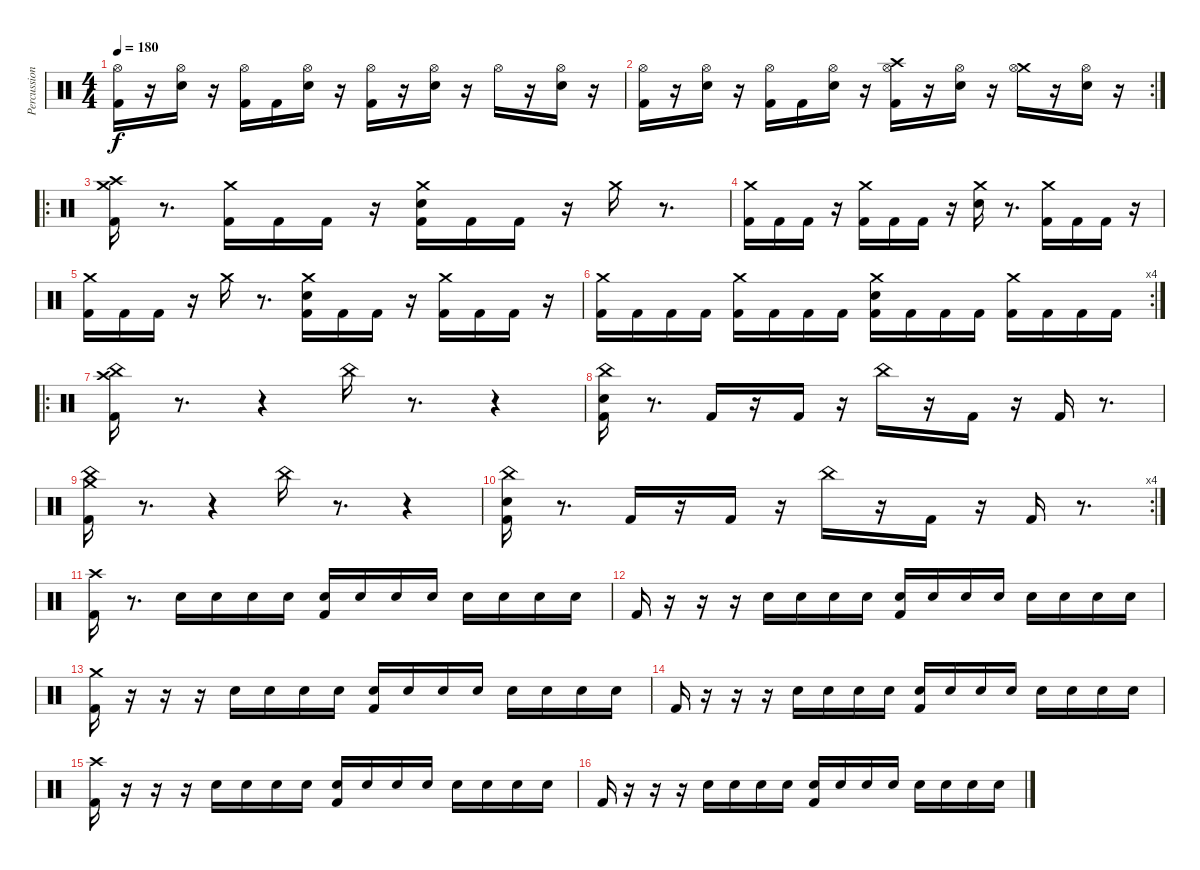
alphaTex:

\track ("Percussion" "Percussion") {instrument percussion}
\staff {score}
\articulation defaults
\ts (4 4)
\tempo 180
\clef neutral
\ks c
("Hi-Hat (open)" "Kick (hit) 2").16{dy f} r.16 ("Electric Snare (hit)" "Hi-Hat (open)").16 r.16 ("Hi-Hat (open)" "Kick (hit) 2").16 "Kick (hit) 2".16 ("Electric Snare (hit)" "Hi-Hat (open)").16 r.16 ("Hi-Hat (open)" "Kick (hit) 2").16 r.16 ("Electric Snare (hit)" "Hi-Hat (open)").16 r.16 "Hi-Hat (open)".16 r.16 ("Electric Snare (hit)" "Hi-Hat (open)").16 r.16 |
\rc 2
("Hi-Hat (open)" "Kick (hit) 2").16 r.16 ("Electric Snare (hit)" "Hi-Hat (open)").16 r.16 ("Hi-Hat (open)" "Kick (hit) 2").16 "Kick (hit) 2".16 ("Electric Snare (hit)" "Hi-Hat (open)").16 r.16 ("Crash high (hit)" "Hi-Hat (open)" "Kick (hit) 2").16 r.16 ("Electric Snare (hit)" "Hi-Hat (open)").16 r.16 ("Crash medium (hit)" "Hi-Hat (open)").16 r.16 ("Electric Snare (hit)" "Hi-Hat (open)").16 r.16 |
\ro
("Crash medium (hit)" "Crash high (hit)" "Kick (hit) 2").16 r.8{d} ("Crash medium (hit)" "Kick (hit) 2").16 "Kick (hit) 2".16 "Kick (hit) 2".16 r.16 ("Electric Snare (hit)" "Crash medium (hit)" "Kick (hit) 2").16 "Kick (hit) 2".16 "Kick (hit) 2".16 r.16 "Crash medium (hit)".16 r.8{d} |
("Crash medium (hit)" "Kick (hit) 2").16 "Kick (hit) 2".16 "Kick (hit) 2".16 r.16 ("Crash medium (hit)" "Kick (hit) 2").16 "Kick (hit) 2".16 "Kick (hit) 2".16 r.16 ("Electric Snare (hit)" "Crash medium (hit)").16 r.8{d} ("Crash medium (hit)" "Kick (hit) 2").16 "Kick (hit) 2".16 "Kick (hit) 2".16 r.16 |
("Crash medium (hit)" "Kick (hit) 2").16 "Kick (hit) 2".16 "Kick (hit) 2".16 r.16 "Crash medium (hit)".16 r.8{d} ("Electric Snare (hit)" "Crash medium (hit)" "Kick (hit) 2").16 "Kick (hit) 2".16 "Kick (hit) 2".16 r.16 ("Crash medium (hit)" "Kick (hit) 2").16 "Kick (hit) 2".16 "Kick (hit) 2".16 r.16 |
\rc 4
("Crash medium (hit)" "Kick (hit) 2").16 "Kick (hit) 2".16 "Kick (hit) 2".16 "Kick (hit) 2".16 ("Crash medium (hit)" "Kick (hit) 2").16 "Kick (hit) 2".16 "Kick (hit) 2".16 "Kick (hit) 2".16 ("Electric Snare (hit)" "Crash medium (hit)" "Kick (hit) 2").16 "Kick (hit) 2".16 "Kick (hit) 2".16 "Kick (hit) 2".16 ("Crash medium (hit)" "Kick (hit) 2").16 "Kick (hit) 2".16 "Kick (hit) 2".16 "Kick (hit) 2".16 |
\ro
("Crash high (hit)" "China (hit)" "Kick (hit) 2").16 r.8{d} r.4 "China (hit)".16 r.8{d} r.4 |
("Electric Snare (hit)" "China (hit)" "Kick (hit) 2").16 r.8{d} "Kick (hit) 2".16 r.16 "Kick (hit) 2".16 r.16 "China (hit)".16 r.16 "Kick (hit) 2".16 r.16 "Kick (hit) 2".16 r.8{d} |
("Crash medium (hit)" "China (hit)" "Kick (hit) 2").16 r.8{d} r.4 "China (hit)".16 r.8{d} r.4 |
\rc 4
("Electric Snare (hit)" "China (hit)" "Kick (hit) 2").16 r.8{d} "Kick (hit) 2".16 r.16 "Kick (hit) 2".16 r.16 "China (hit)".16 r.16 "Kick (hit) 2".16 r.16 "Kick (hit) 2".16 r.8{d} |
("Crash high (hit)" "Kick (hit) 2").16 r.8{d} "Electric Snare (hit)".16 "Electric Snare (hit)".16 "Electric Snare (hit)".16 "Electric Snare (hit)".16 ("Electric Snare (hit)" "Kick (hit) 2").16 "Electric Snare (hit)".16 "Electric Snare (hit)".16 "Electric Snare (hit)".16 "Electric Snare (hit)".16 "Electric Snare (hit)".16 "Electric Snare (hit)".16 "Electric Snare (hit)".16 |
"Kick (hit) 2".16 r.16 r.16 r.16 "Electric Snare (hit)".16 "Electric Snare (hit)".16 "Electric Snare (hit)".16 "Electric Snare (hit)".16 ("Electric Snare (hit)" "Kick (hit) 2").16 "Electric Snare (hit)".16 "Electric Snare (hit)".16 "Electric Snare (hit)".16 "Electric Snare (hit)".16 "Electric Snare (hit)".16 "Electric Snare (hit)".16 "Electric Snare (hit)".16 |
("Crash medium (hit)" "Kick (hit) 2").16 r.16 r.16 r.16 "Electric Snare (hit)".16 "Electric Snare (hit)".16 "Electric Snare (hit)".16 "Electric Snare (hit)".16 ("Electric Snare (hit)" "Kick (hit) 2").16 "Electric Snare (hit)".16 "Electric Snare (hit)".16 "Electric Snare (hit)".16 "Electric Snare (hit)".16 "Electric Snare (hit)".16 "Electric Snare (hit)".16 "Electric Snare (hit)".16 |
"Kick (hit) 2".16 r.16 r.16 r.16 "Electric Snare (hit)".16 "Electric Snare (hit)".16 "Electric Snare (hit)".16 "Electric Snare (hit)".16 ("Electric Snare (hit)" "Kick (hit) 2").16 "Electric Snare (hit)".16 "Electric Snare (hit)".16 "Electric Snare (hit)".16 "Electric Snare (hit)".16 "Electric Snare (hit)".16 "Electric Snare (hit)".16 "Electric Snare (hit)".16 |
("Crash high (hit)" "Kick (hit) 2").16 r.16 r.16 r.16 "Electric Snare (hit)".16 "Electric Snare (hit)".16 "Electric Snare (hit)".16 "Electric Snare (hit)".16 ("Electric Snare (hit)" "Kick (hit) 2").16 "Electric Snare (hit)".16 "Electric Snare (hit)".16 "Electric Snare (hit)".16 "Electric Snare (hit)".16 "Electric Snare (hit)".16 "Electric Snare (hit)".16 "Electric Snare (hit)".16 |
"Kick (hit) 2".16 r.16 r.16 r.16 "Electric Snare (hit)".16 "Electric Snare (hit)".16 "Electric Snare (hit)".16 "Electric Snare (hit)".16 ("Electric Snare (hit)" "Kick (hit) 2").16 "Electric Snare (hit)".16 "Electric Snare (hit)".16 "Electric Snare (hit)".16 "Electric Snare (hit)".16 "Electric Snare (hit)".16 "Electric Snare (hit)".16 "Electric Snare (hit)".16
